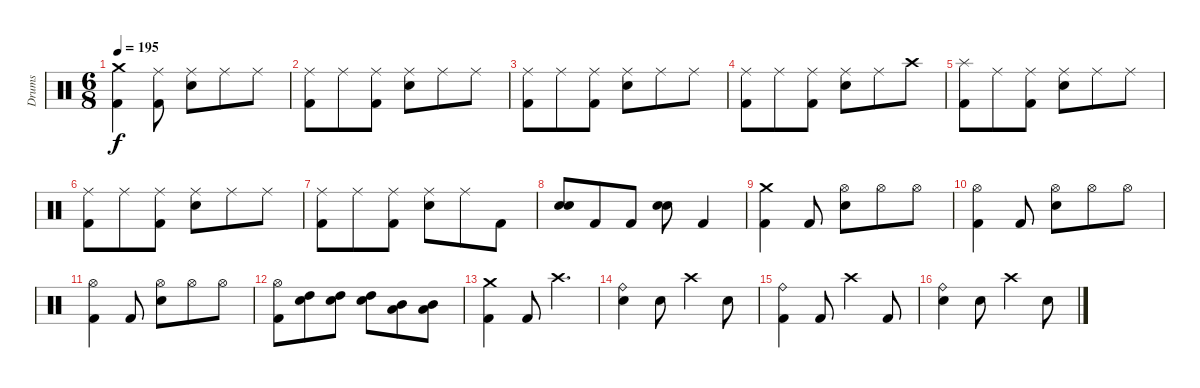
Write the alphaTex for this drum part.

\track ("Drums" "Drums") {instrument percussion}
\staff {score}
\articulation defaults
\ts (6 8)
\tempo 195
\clef neutral
\ks c
("Crash medium (hit)" "Kick (hit) 2").4{dy f} ("Ride (middle)" "Kick (hit) 2").8 ("Ride (middle)" "Electric Snare (hit)").8 "Ride (middle)".8 "Ride (middle)".8 |
("Ride (middle)" "Kick (hit) 2").8 "Ride (middle)".8 ("Ride (middle)" "Kick (hit) 2").8 ("Ride (middle)" "Electric Snare (hit)").8 "Ride (middle)".8 "Ride (middle)".8 |
("Ride (middle)" "Kick (hit) 2").8 "Ride (middle)".8 ("Ride (middle)" "Kick (hit) 2").8 ("Ride (middle)" "Electric Snare (hit)").8 "Ride (middle)".8 "Ride (middle)".8 |
("Ride (middle)" "Kick (hit) 2").8 "Ride (middle)".8 ("Ride (middle)" "Kick (hit) 2").8 ("Ride (middle)" "Electric Snare (hit)").8 "Ride (middle)".8 "Crash high (hit)".8 |
("Splash (hit)" "Kick (hit) 2").8 "Ride (middle)".8 ("Ride (middle)" "Kick (hit) 2").8 ("Ride (middle)" "Electric Snare (hit)").8 "Ride (middle)".8 "Ride (middle)".8 |
("Ride (middle)" "Kick (hit) 2").8 "Ride (middle)".8 ("Ride (middle)" "Kick (hit) 2").8 ("Ride (middle)" "Electric Snare (hit)").8 "Ride (middle)".8 "Ride (middle)".8 |
("Ride (middle)" "Kick (hit) 2").8 "Ride (middle)".8 ("Ride (middle)" "Kick (hit) 2").8 ("Ride (middle)" "Electric Snare (hit)").8 "Ride (middle)".8 "Kick (hit) 2".8 |
("Electric Snare (hit)" "Electric Snare (hit)").8{bd 240} "Kick (hit) 2".8 "Kick (hit) 2".8 ("Electric Snare (hit)" "Electric Snare (hit)").8{bd 120} "Kick (hit) 2".4 |
("Crash medium (hit)" "Kick (hit) 2").4 "Kick (hit) 2".8 ("Hi-Hat (open)" "Electric Snare (hit)").8 "Hi-Hat (open)".8 "Hi-Hat (open)".8 |
("Hi-Hat (open)" "Kick (hit) 2").4 "Kick (hit) 2".8 ("Hi-Hat (open)" "Electric Snare (hit)").8 "Hi-Hat (open)".8 "Hi-Hat (open)".8 |
("Hi-Hat (open)" "Kick (hit) 2").4 "Kick (hit) 2".8 ("Hi-Hat (open)" "Electric Snare (hit)").8 "Hi-Hat (open)".8 "Hi-Hat (open)".8 |
("Hi-Hat (open)" "Kick (hit) 2").8 ("Electric Snare (hit)" "High Tom (hit)").8 ("Electric Snare (hit)" "High Tom (hit)").8 ("Electric Snare (hit)" "High Tom (hit)").8 ("Mid Tom (hit)" "Low Tom (hit)").8 ("Mid Tom (hit)" "Low Tom (hit)").8 |
("Crash medium (hit)" "Kick (hit) 2").4 "Kick (hit) 2".8 "Crash high (hit)".4{d} |
("Ride (bell)" "Electric Snare (hit)").4 "Electric Snare (hit)".8 "Crash high (hit)".4 "Electric Snare (hit)".8 |
("Ride (bell)" "Kick (hit) 2").4 "Kick (hit) 2".8 "Crash high (hit)".4 "Kick (hit) 2".8 |
("Ride (bell)" "Electric Snare (hit)").4 "Electric Snare (hit)".8 "Crash high (hit)".4 "Electric Snare (hit)".8
